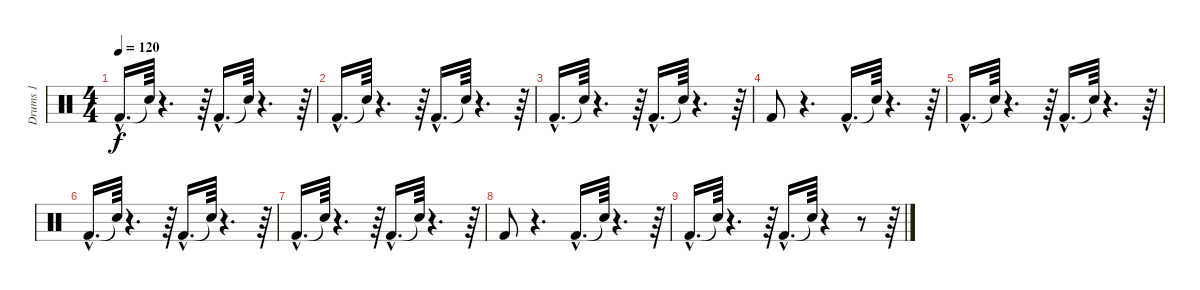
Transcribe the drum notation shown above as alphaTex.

\track ("Drums 1" "Drums 1") {instrument percussion}
\staff {score}
\articulation defaults
\ts (4 4)
\tempo 120
\clef neutral
\ks c "Kick (hit) 2"{hac}.16{d dy f} "Snare (hit)"{t}.64
r.4{d} r.64 "Kick (hit) 2"{hac}.16{d} "Snare (hit)"{t}.64 r.4{d} r.64 |
"Kick (hit) 2"{hac}.16{d} "Snare (hit)"{t}.64 r.4{d} r.64 "Kick (hit) 2"{hac}.16{d} "Snare (hit)"{t}.64 r.4{d} r.64 |
"Kick (hit) 2"{hac}.16{d} "Snare (hit)"{t}.64 r.4{d} r.64 "Kick (hit) 2"{hac}.16{d} "Snare (hit)"{t}.64 r.4{d} r.64 |
"Kick (hit) 2".8 r.4{d} "Kick (hit) 2"{hac}.16{d} "Snare (hit)"{t}.64 r.4{d} r.64 |
"Kick (hit) 2"{hac}.16{d} "Snare (hit)"{t}.64 r.4{d} r.64 "Kick (hit) 2"{hac}.16{d} "Snare (hit)"{t}.64 r.4{d} r.64 |
"Kick (hit) 2"{hac}.16{d} "Snare (hit)"{t}.64 r.4{d} r.64 "Kick (hit) 2"{hac}.16{d} "Snare (hit)"{t}.64 r.4{d} r.64 |
"Kick (hit) 2"{hac}.16{d} "Snare (hit)"{t}.64 r.4{d} r.64 "Kick (hit) 2"{hac}.16{d} "Snare (hit)"{t}.64 r.4{d} r.64 |
"Kick (hit) 2".8 r.4{d} "Kick (hit) 2"{hac}.16{d} "Snare (hit)"{t}.64 r.4{d} r.64 |
"Kick (hit) 2"{hac}.16{d} "Snare (hit)"{t}.64 r.4{d} r.64 "Kick (hit) 2"{hac}.16{d} "Snare (hit)"{t}.64 r.4 r.8 r.64
